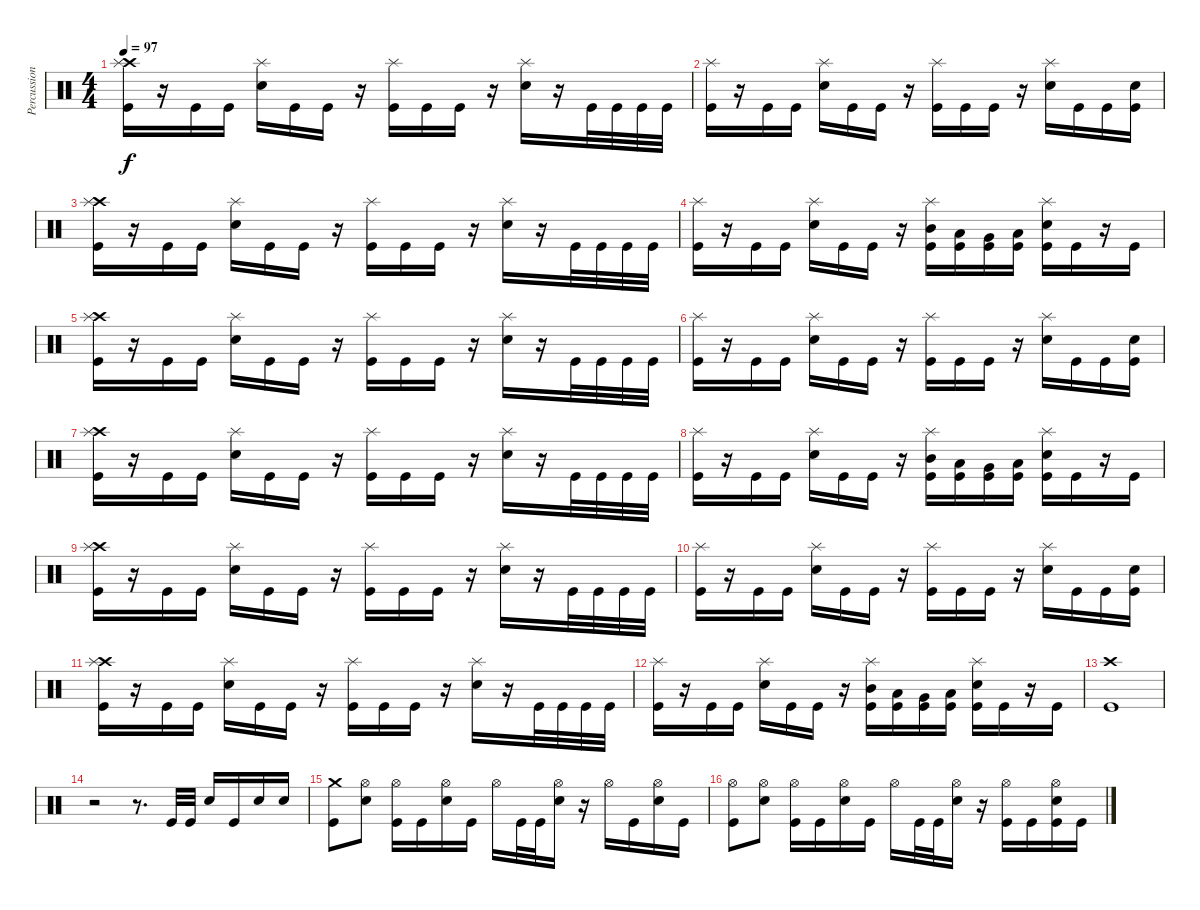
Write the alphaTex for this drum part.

\track ("Percussion" "Percussion") {instrument percussion}
\staff {score}
\articulation defaults
\ts (4 4)
\tempo 97
\clef neutral
\ks c
("Crash high (hit)" "Splash (hit)" "Kick (hit)").16{dy f} r.16 "Kick (hit)".16 "Kick (hit)".16 ("Splash (hit)" "Electric Snare (hit)").16 "Kick (hit)".16 "Kick (hit)".16 r.16 ("Splash (hit)" "Kick (hit)").16 "Kick (hit)".16 "Kick (hit)".16 r.16 ("Splash (hit)" "Electric Snare (hit)").16 r.16 "Kick (hit)".32 "Kick (hit)".32 "Kick (hit)".32 "Kick (hit)".32 |
("Splash (hit)" "Kick (hit)").16 r.16 "Kick (hit)".16 "Kick (hit)".16 ("Splash (hit)" "Electric Snare (hit)").16 "Kick (hit)".16 "Kick (hit)".16 r.16 ("Splash (hit)" "Kick (hit)").16 "Kick (hit)".16 "Kick (hit)".16 r.16 ("Splash (hit)" "Electric Snare (hit)").16 "Kick (hit)".16 "Kick (hit)".16 ("Electric Snare (hit)" "Kick (hit)").16 |
("Crash high (hit)" "Splash (hit)" "Kick (hit)").16 r.16 "Kick (hit)".16 "Kick (hit)".16 ("Splash (hit)" "Electric Snare (hit)").16 "Kick (hit)".16 "Kick (hit)".16 r.16 ("Splash (hit)" "Kick (hit)").16 "Kick (hit)".16 "Kick (hit)".16 r.16 ("Splash (hit)" "Electric Snare (hit)").16 r.16 "Kick (hit)".32 "Kick (hit)".32 "Kick (hit)".32 "Kick (hit)".32 |
("Splash (hit)" "Kick (hit)").16 r.16 "Kick (hit)".16 "Kick (hit)".16 ("Splash (hit)" "Electric Snare (hit)").16 "Kick (hit)".16 "Kick (hit)".16 r.16 ("Splash (hit)" "Mid Tom (hit)" "Kick (hit)").16 ("Low Tom (hit)" "Kick (hit)").16 ("Very Low Tom (hit)" "Kick (hit)").16 ("Low Floor Tom (hit)" "Kick (hit)").16 ("Splash (hit)" "Electric Snare (hit)" "Kick (hit)").16 "Kick (hit)".16 r.16 "Kick (hit)".16 |
("Crash high (hit)" "Splash (hit)" "Kick (hit)").16 r.16 "Kick (hit)".16 "Kick (hit)".16 ("Splash (hit)" "Electric Snare (hit)").16 "Kick (hit)".16 "Kick (hit)".16 r.16 ("Splash (hit)" "Kick (hit)").16 "Kick (hit)".16 "Kick (hit)".16 r.16 ("Splash (hit)" "Electric Snare (hit)").16 r.16 "Kick (hit)".32 "Kick (hit)".32 "Kick (hit)".32 "Kick (hit)".32 |
("Splash (hit)" "Kick (hit)").16 r.16 "Kick (hit)".16 "Kick (hit)".16 ("Splash (hit)" "Electric Snare (hit)").16 "Kick (hit)".16 "Kick (hit)".16 r.16 ("Splash (hit)" "Kick (hit)").16 "Kick (hit)".16 "Kick (hit)".16 r.16 ("Splash (hit)" "Electric Snare (hit)").16 "Kick (hit)".16 "Kick (hit)".16 ("Electric Snare (hit)" "Kick (hit)").16 |
("Crash high (hit)" "Splash (hit)" "Kick (hit)").16 r.16 "Kick (hit)".16 "Kick (hit)".16 ("Splash (hit)" "Electric Snare (hit)").16 "Kick (hit)".16 "Kick (hit)".16 r.16 ("Splash (hit)" "Kick (hit)").16 "Kick (hit)".16 "Kick (hit)".16 r.16 ("Splash (hit)" "Electric Snare (hit)").16 r.16 "Kick (hit)".32 "Kick (hit)".32 "Kick (hit)".32 "Kick (hit)".32 |
("Splash (hit)" "Kick (hit)").16 r.16 "Kick (hit)".16 "Kick (hit)".16 ("Splash (hit)" "Electric Snare (hit)").16 "Kick (hit)".16 "Kick (hit)".16 r.16 ("Splash (hit)" "Mid Tom (hit)" "Kick (hit)").16 ("Low Tom (hit)" "Kick (hit)").16 ("Very Low Tom (hit)" "Kick (hit)").16 ("Low Floor Tom (hit)" "Kick (hit)").16 ("Splash (hit)" "Electric Snare (hit)" "Kick (hit)").16 "Kick (hit)".16 r.16 "Kick (hit)".16 |
("Crash high (hit)" "Splash (hit)" "Kick (hit)").16 r.16 "Kick (hit)".16 "Kick (hit)".16 ("Splash (hit)" "Electric Snare (hit)").16 "Kick (hit)".16 "Kick (hit)".16 r.16 ("Splash (hit)" "Kick (hit)").16 "Kick (hit)".16 "Kick (hit)".16 r.16 ("Splash (hit)" "Electric Snare (hit)").16 r.16 "Kick (hit)".32 "Kick (hit)".32 "Kick (hit)".32 "Kick (hit)".32 |
("Splash (hit)" "Kick (hit)").16 r.16 "Kick (hit)".16 "Kick (hit)".16 ("Splash (hit)" "Electric Snare (hit)").16 "Kick (hit)".16 "Kick (hit)".16 r.16 ("Splash (hit)" "Kick (hit)").16 "Kick (hit)".16 "Kick (hit)".16 r.16 ("Splash (hit)" "Electric Snare (hit)").16 "Kick (hit)".16 "Kick (hit)".16 ("Electric Snare (hit)" "Kick (hit)").16 |
("Crash high (hit)" "Splash (hit)" "Kick (hit)").16 r.16 "Kick (hit)".16 "Kick (hit)".16 ("Splash (hit)" "Electric Snare (hit)").16 "Kick (hit)".16 "Kick (hit)".16 r.16 ("Splash (hit)" "Kick (hit)").16 "Kick (hit)".16 "Kick (hit)".16 r.16 ("Splash (hit)" "Electric Snare (hit)").16 r.16 "Kick (hit)".32 "Kick (hit)".32 "Kick (hit)".32 "Kick (hit)".32 |
("Splash (hit)" "Kick (hit)").16 r.16 "Kick (hit)".16 "Kick (hit)".16 ("Splash (hit)" "Electric Snare (hit)").16 "Kick (hit)".16 "Kick (hit)".16 r.16 ("Splash (hit)" "Mid Tom (hit)" "Kick (hit)").16 ("Low Tom (hit)" "Kick (hit)").16 ("Very Low Tom (hit)" "Kick (hit)").16 ("Low Floor Tom (hit)" "Kick (hit)").16 ("Splash (hit)" "Electric Snare (hit)" "Kick (hit)").16 "Kick (hit)".16 r.16 "Kick (hit)".16 |
("Crash high (hit)" "Kick (hit)").1 |
r.2 r.8{d} "Kick (hit)".32 "Kick (hit)".32 "Electric Snare (hit)".16 "Kick (hit)".16 "Electric Snare (hit)".16 "Electric Snare (hit)".16 |
("Crash medium (hit)" "Kick (hit)").8 ("Hi-Hat (open)" "Electric Snare (hit)").8 ("Hi-Hat (open)" "Kick (hit)").16 "Kick (hit)".16 ("Hi-Hat (open)" "Electric Snare (hit)").16 "Kick (hit)".16 "Hi-Hat (open)".16 "Kick (hit)".32 "Kick (hit)".32 ("Hi-Hat (open)" "Electric Snare (hit)").16 r.16 "Hi-Hat (open)".16 "Kick (hit)".16 ("Hi-Hat (open)" "Electric Snare (hit)").16 "Kick (hit)".16 |
("Hi-Hat (open)" "Kick (hit)").8 ("Hi-Hat (open)" "Electric Snare (hit)").8 ("Hi-Hat (open)" "Kick (hit)").16 "Kick (hit)".16 ("Hi-Hat (open)" "Electric Snare (hit)").16 "Kick (hit)".16 "Hi-Hat (open)".16 "Kick (hit)".32 "Kick (hit)".32 ("Hi-Hat (open)" "Electric Snare (hit)").16 r.16 ("Hi-Hat (open)" "Kick (hit)").16 "Kick (hit)".16 ("Hi-Hat (open)" "Electric Snare (hit)" "Kick (hit)").16 "Kick (hit)".16
